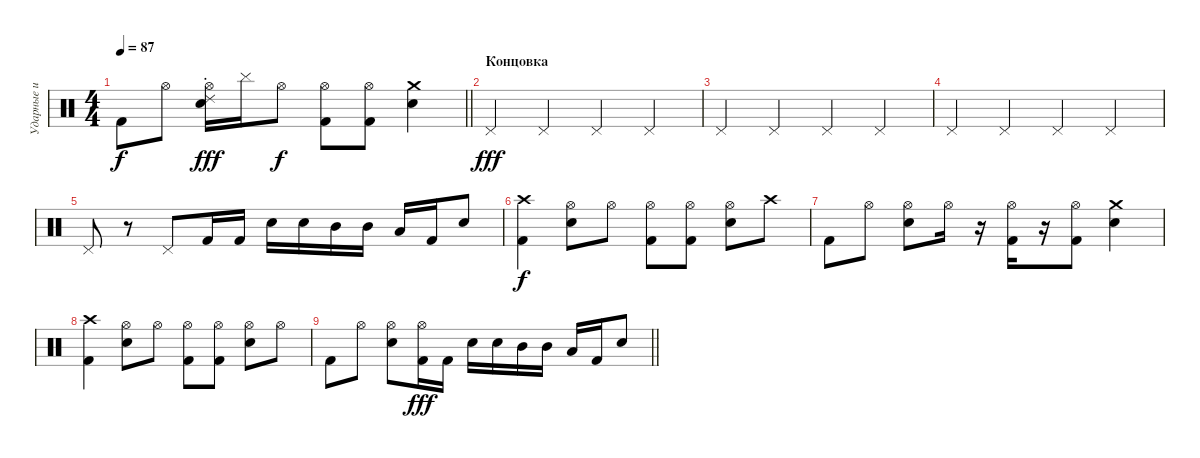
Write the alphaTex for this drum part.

\track ("Ударные и Скрэтч" "Ударные и ") {instrument percussion}
\staff {score}
\articulation defaults
\ts (4 4)
\tempo 87
\clef neutral
\barLineRight lightlight
\ks c "Kick (hit) 2".8{dy f} "Hi-Hat (open)".8
("Electric Snare (hit)" "Hi-Hat (open)" "Ride (choke) 2").16{dy fff} "Cymbal (hit)".16 "Hi-Hat (open)".8{dy f} ("Kick (hit) 2" "Hi-Hat (open)").8 ("Kick (hit) 2" "Hi-Hat (open)").8 ("Electric Snare (hit)" "Crash medium (hit)").4 |
\section ("" "Концовка")
"Pedal Hi-Hat (hit)".4{dy fff} "Pedal Hi-Hat (hit)".4 "Pedal Hi-Hat (hit)".4 "Pedal Hi-Hat (hit)".4 |
"Pedal Hi-Hat (hit)".4 "Pedal Hi-Hat (hit)".4 "Pedal Hi-Hat (hit)".4 "Pedal Hi-Hat (hit)".4 |
"Pedal Hi-Hat (hit)".4 "Pedal Hi-Hat (hit)".4 "Pedal Hi-Hat (hit)".4 "Pedal Hi-Hat (hit)".4 |
"Pedal Hi-Hat (hit)".8 r.8 "Pedal Hi-Hat (hit)".8 "Kick (hit) 2".16 "Kick (hit) 2".16 "Electric Snare (hit)".16 "Electric Snare (hit)".16 "Mid Tom (hit)".16 "Mid Tom (hit)".16 "Low Tom (hit)".16 "Kick (hit) 2".16 "Electric Snare (hit)".8 |
("Kick (hit) 2" "Crash high (hit)").4{dy f} ("Electric Snare (hit)" "Hi-Hat (open)").8 "Hi-Hat (open)".8 ("Kick (hit) 2" "Hi-Hat (open)").8 ("Kick (hit) 2" "Hi-Hat (open)").8 ("Electric Snare (hit)" "Hi-Hat (open)").8 "Crash high (hit)".8 |
"Kick (hit) 2".8 "Hi-Hat (open)".8 ("Electric Snare (hit)" "Hi-Hat (open)").8 "Hi-Hat (open)".16 r.16 ("Kick (hit) 2" "Hi-Hat (open)").16 r.16 ("Kick (hit) 2" "Hi-Hat (open)").8 ("Electric Snare (hit)" "Crash medium (hit)").4 |
("Kick (hit) 2" "Crash high (hit)").4 ("Electric Snare (hit)" "Hi-Hat (open)").8 "Hi-Hat (open)".8 ("Kick (hit) 2" "Hi-Hat (open)").8 ("Kick (hit) 2" "Hi-Hat (open)").8 ("Electric Snare (hit)" "Hi-Hat (open)").8 "Hi-Hat (open)".8 |
\barLineRight lightlight "Kick (hit) 2".8 "Hi-Hat (open)".8
("Electric Snare (hit)" "Hi-Hat (open)").8 ("Kick (hit) 2" "Hi-Hat (open)").16{dy fff} "Kick (hit) 2".16 "Electric Snare (hit)".16 "Electric Snare (hit)".16 "Mid Tom (hit)".16 "Mid Tom (hit)".16 "Low Tom (hit)".16 "Kick (hit) 2".16 "Electric Snare (hit)".8
